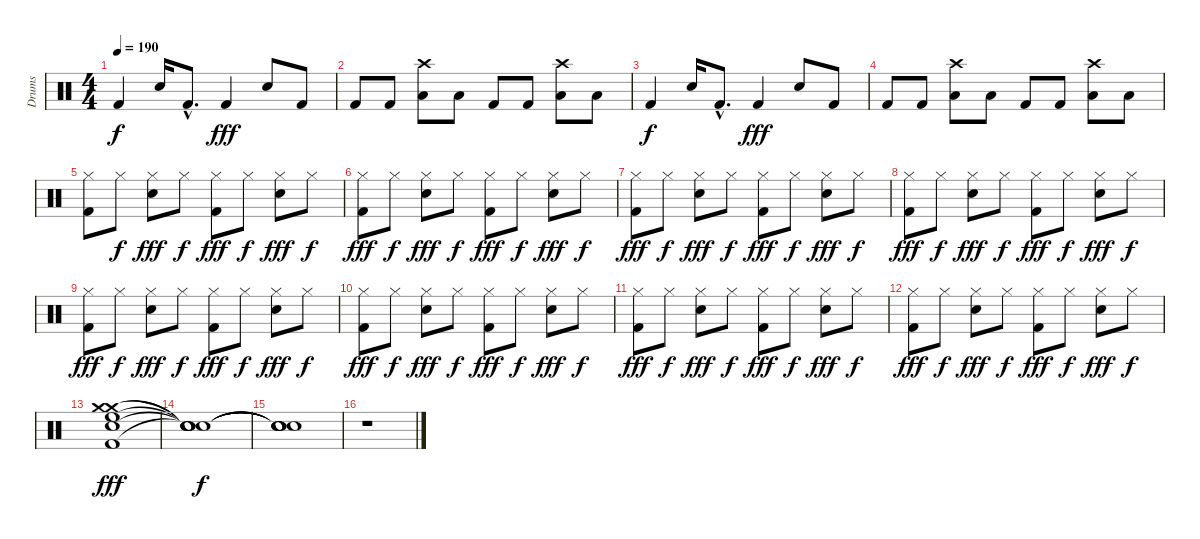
\track ("Drums" "Drums") {instrument percussion}
\staff {score}
\articulation defaults
\ts (4 4)
\tempo 190
\clef neutral
\ks c "Kick (hit) 2".4{dy f} "Snare (hit) 2".16 "Kick (hit) 2"{hac}.8{d} "Kick (hit) 2".4{dy fff} "Snare (hit) 2".8 "Kick (hit) 2".8
|
"Kick (hit) 2".8 "Kick (hit) 2".8 ("Low Tom (hit)" "Crash high (hit)").8 "Low Tom (hit)".8 "Kick (hit) 2".8 "Kick (hit) 2".8 ("Low Tom (hit)" "Crash high (hit)").8 "Low Tom (hit)".8 |
"Kick (hit) 2".4{dy f} "Snare (hit) 2".16 "Kick (hit) 2"{hac}.8{d} "Kick (hit) 2".4{dy fff} "Snare (hit) 2".8 "Kick (hit) 2".8 |
"Kick (hit) 2".8 "Kick (hit) 2".8 ("Low Tom (hit)" "Crash high (hit)").8 "Low Tom (hit)".8 "Kick (hit) 2".8 "Kick (hit) 2".8 ("Low Tom (hit)" "Crash high (hit)").8 "Low Tom (hit)".8 |
("Kick (hit) 2" "Hi-Hat (closed)").8 "Hi-Hat (closed)".8{dy f} ("Snare (hit) 2" "Hi-Hat (closed)").8{dy fff} "Hi-Hat (closed)".8{dy f} ("Kick (hit) 2" "Hi-Hat (closed)").8{dy fff} "Hi-Hat (closed)".8{dy f} ("Snare (hit) 2" "Hi-Hat (closed)").8{dy fff} "Hi-Hat (closed)".8{dy f} |
("Kick (hit) 2" "Hi-Hat (closed)").8{dy fff} "Hi-Hat (closed)".8{dy f} ("Snare (hit) 2" "Hi-Hat (closed)").8{dy fff} "Hi-Hat (closed)".8{dy f} ("Kick (hit) 2" "Hi-Hat (closed)").8{dy fff} "Hi-Hat (closed)".8{dy f} ("Snare (hit) 2" "Hi-Hat (closed)").8{dy fff} "Hi-Hat (closed)".8{dy f} |
("Kick (hit) 2" "Hi-Hat (closed)").8{dy fff} "Hi-Hat (closed)".8{dy f} ("Snare (hit) 2" "Hi-Hat (closed)").8{dy fff} "Hi-Hat (closed)".8{dy f} ("Kick (hit) 2" "Hi-Hat (closed)").8{dy fff} "Hi-Hat (closed)".8{dy f} ("Snare (hit) 2" "Hi-Hat (closed)").8{dy fff} "Hi-Hat (closed)".8{dy f} |
("Kick (hit) 2" "Hi-Hat (closed)").8{dy fff} "Hi-Hat (closed)".8{dy f} ("Snare (hit) 2" "Hi-Hat (closed)").8{dy fff} "Hi-Hat (closed)".8{dy f} ("Kick (hit) 2" "Hi-Hat (closed)").8{dy fff} "Hi-Hat (closed)".8{dy f} ("Snare (hit) 2" "Hi-Hat (closed)").8{dy fff} "Hi-Hat (closed)".8{dy f} |
("Kick (hit) 2" "Hi-Hat (closed)").8{dy fff} "Hi-Hat (closed)".8{dy f} ("Snare (hit) 2" "Hi-Hat (closed)").8{dy fff} "Hi-Hat (closed)".8{dy f} ("Kick (hit) 2" "Hi-Hat (closed)").8{dy fff} "Hi-Hat (closed)".8{dy f} ("Snare (hit) 2" "Hi-Hat (closed)").8{dy fff} "Hi-Hat (closed)".8{dy f} |
("Kick (hit) 2" "Hi-Hat (closed)").8{dy fff} "Hi-Hat (closed)".8{dy f} ("Snare (hit) 2" "Hi-Hat (closed)").8{dy fff} "Hi-Hat (closed)".8{dy f} ("Kick (hit) 2" "Hi-Hat (closed)").8{dy fff} "Hi-Hat (closed)".8{dy f} ("Snare (hit) 2" "Hi-Hat (closed)").8{dy fff} "Hi-Hat (closed)".8{dy f} |
("Kick (hit) 2" "Hi-Hat (closed)").8{dy fff} "Hi-Hat (closed)".8{dy f} ("Snare (hit) 2" "Hi-Hat (closed)").8{dy fff} "Hi-Hat (closed)".8{dy f} ("Kick (hit) 2" "Hi-Hat (closed)").8{dy fff} "Hi-Hat (closed)".8{dy f} ("Snare (hit) 2" "Hi-Hat (closed)").8{dy fff} "Hi-Hat (closed)".8{dy f} |
("Kick (hit) 2" "Hi-Hat (closed)").8{dy fff} "Hi-Hat (closed)".8{dy f} ("Snare (hit) 2" "Hi-Hat (closed)").8{dy fff} "Hi-Hat (closed)".8{dy f} ("Kick (hit) 2" "Hi-Hat (closed)").8{dy fff} "Hi-Hat (closed)".8{dy f} ("Snare (hit) 2" "Hi-Hat (closed)").8{dy fff} "Hi-Hat (closed)".8{dy f} |
("Kick (hit) 2" "Snare (hit) 2" "High Floor Tom (hit)" "Crash medium (hit)" "Crash medium (hit)").1{dy fff} |
("Snare (hit)"{t} "Snare (hit)"{t} "Snare (hit)"{t} "Snare (hit)"{t} "Snare (hit)"{t}).1{dy f} |
("Snare (hit)"{t} "Snare (hit)"{t} "Snare (hit)"{t} "Snare (hit)"{t} "Snare (hit)"{t}).1 |
r.1
